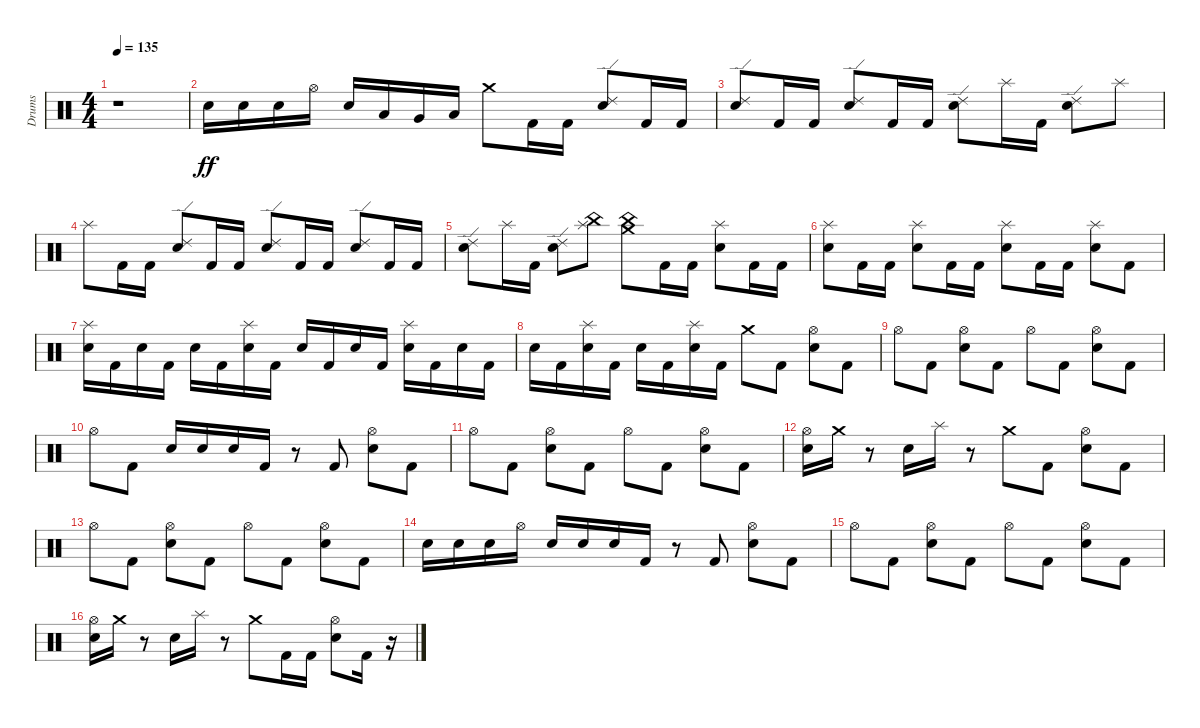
\track ("Drums" "Drums") {instrument percussion}
\staff {score}
\articulation defaults
\ts (4 4)
\tempo 135
\clef neutral
\ks c
r.1{dy ff} |
"Electric Snare (hit)".16 "Electric Snare (hit)".16 "Electric Snare (hit)".16 "Hi-Hat (open)".16 "Electric Snare (hit)".16 "Low Tom (hit)".16 "Very Low Tom (hit)".16 "Low Floor Tom (hit)".16 "Crash medium (hit)".8 "Kick (hit) 2".16 "Kick (hit) 2".16 ("Electric Snare (hit)" "Ride (edge) 2").8 "Kick (hit) 2".16 "Kick (hit) 2".16 |
("Electric Snare (hit)" "Ride (edge) 2").8 "Kick (hit) 2".16 "Kick (hit) 2".16 ("Electric Snare (hit)" "Ride (edge) 2").8 "Kick (hit) 2".16 "Kick (hit) 2".16 ("Electric Snare (hit)" "Ride (edge) 2").8 "Splash (hit)".16 "Kick (hit) 2".16 ("Electric Snare (hit)" "Ride (edge) 2").8 "Splash (hit)".8 |
"Splash (hit)".8 "Kick (hit) 2".16 "Kick (hit) 2".16 ("Electric Snare (hit)" "Ride (edge) 2").8 "Kick (hit) 2".16 "Kick (hit) 2".16 ("Electric Snare (hit)" "Ride (edge) 2").8 "Kick (hit) 2".16 "Kick (hit) 2".16 ("Electric Snare (hit)" "Ride (edge) 2").8 "Kick (hit) 2".16 "Kick (hit) 2".16 |
("Electric Snare (hit)" "Ride (edge) 2").8 "Splash (hit)".16 "Kick (hit) 2".16 ("Electric Snare (hit)" "Ride (edge) 2").8 ("China (hit)" "Splash (hit)").8 ("China (hit)" "Crash medium (hit)").8 "Kick (hit) 2".16 "Kick (hit) 2".16 ("Electric Snare (hit)" "Splash (hit)").8 "Kick (hit) 2".16 "Kick (hit) 2".16 |
("Electric Snare (hit)" "Splash (hit)").8 "Kick (hit) 2".16 "Kick (hit) 2".16 ("Electric Snare (hit)" "Splash (hit)").8 "Kick (hit) 2".16 "Kick (hit) 2".16 ("Electric Snare (hit)" "Splash (hit)").8 "Kick (hit) 2".16 "Kick (hit) 2".16 ("Electric Snare (hit)" "Splash (hit)").8 "Kick (hit) 2".8 |
("Electric Snare (hit)" "Splash (hit)").16 "Kick (hit) 2".16 "Electric Snare (hit)".16 "Kick (hit) 2".16 "Electric Snare (hit)".16 "Kick (hit) 2".16 ("Electric Snare (hit)" "Splash (hit)").16 "Kick (hit) 2".16 "Electric Snare (hit)".16 "Kick (hit) 2".16 "Electric Snare (hit)".16 "Kick (hit) 2".16 ("Electric Snare (hit)" "Splash (hit)").16 "Kick (hit) 2".16 "Electric Snare (hit)".16 "Kick (hit) 2".16 |
"Electric Snare (hit)".16 "Kick (hit) 2".16 ("Electric Snare (hit)" "Splash (hit)").16 "Kick (hit) 2".16 "Electric Snare (hit)".16 "Kick (hit) 2".16 ("Electric Snare (hit)" "Splash (hit)").16 "Kick (hit) 2".16 "Crash medium (hit)".8 "Kick (hit) 2".8 ("Electric Snare (hit)" "Hi-Hat (open)").8 "Kick (hit) 2".8 |
"Hi-Hat (open)".8 "Kick (hit) 2".8 ("Electric Snare (hit)" "Hi-Hat (open)").8 "Kick (hit) 2".8 "Hi-Hat (open)".8 "Kick (hit) 2".8 ("Electric Snare (hit)" "Hi-Hat (open)").8 "Kick (hit) 2".8 |
"Hi-Hat (open)".8 "Kick (hit) 2".8 "Electric Snare (hit)".16 "Electric Snare (hit)".16 "Electric Snare (hit)".16 "Kick (hit) 2".16 r.8 "Kick (hit) 2".8 ("Electric Snare (hit)" "Hi-Hat (open)").8 "Kick (hit) 2".8 |
"Hi-Hat (open)".8 "Kick (hit) 2".8 ("Electric Snare (hit)" "Hi-Hat (open)").8 "Kick (hit) 2".8 "Hi-Hat (open)".8 "Kick (hit) 2".8 ("Electric Snare (hit)" "Hi-Hat (open)").8 "Kick (hit) 2".8 |
("Electric Snare (hit)" "Hi-Hat (open)").16 "Crash medium (hit)".16 r.8 "Electric Snare (hit)".16 "Splash (hit)".16 r.8 "Crash medium (hit)".8 "Kick (hit) 2".8 ("Electric Snare (hit)" "Hi-Hat (open)").8 "Kick (hit) 2".8 |
"Hi-Hat (open)".8 "Kick (hit) 2".8 ("Electric Snare (hit)" "Hi-Hat (open)").8 "Kick (hit) 2".8 "Hi-Hat (open)".8 "Kick (hit) 2".8 ("Electric Snare (hit)" "Hi-Hat (open)").8 "Kick (hit) 2".8 |
"Electric Snare (hit)".16 "Electric Snare (hit)".16 "Electric Snare (hit)".16 "Hi-Hat (open)".16 "Electric Snare (hit)".16 "Electric Snare (hit)".16 "Electric Snare (hit)".16 "Kick (hit) 2".16 r.8 "Kick (hit) 2".8 ("Electric Snare (hit)" "Hi-Hat (open)").8 "Kick (hit) 2".8 |
"Hi-Hat (open)".8 "Kick (hit) 2".8 ("Electric Snare (hit)" "Hi-Hat (open)").8 "Kick (hit) 2".8 "Hi-Hat (open)".8 "Kick (hit) 2".8 ("Electric Snare (hit)" "Hi-Hat (open)").8 "Kick (hit) 2".8 |
("Electric Snare (hit)" "Hi-Hat (open)").16 "Crash medium (hit)".16 r.8 "Electric Snare (hit)".16 "Splash (hit)".16 r.8 "Crash medium (hit)".8 "Kick (hit) 2".16 "Kick (hit) 2".16 ("Electric Snare (hit)" "Hi-Hat (open)").8 "Kick (hit) 2".16 r.16
